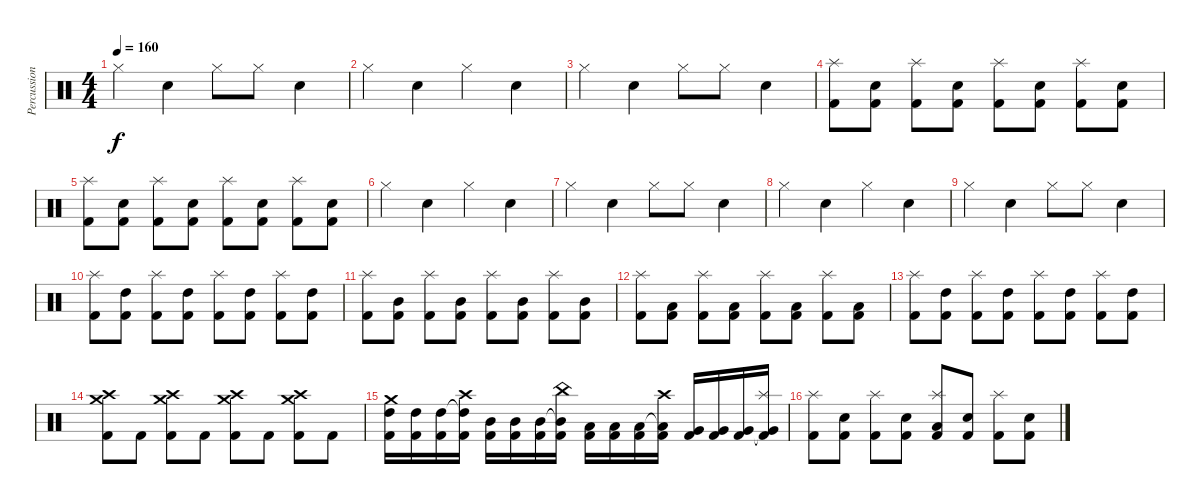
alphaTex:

\track ("Percussion" "Percussion") {instrument percussion}
\staff {score}
\articulation defaults
\ts (4 4)
\tempo 160
\clef neutral
\ks c "Hi-Hat (closed)".4{dy f} "Snare (hit) 2".4 "Hi-Hat (closed)".8 "Hi-Hat (closed)".8 "Snare (hit) 2".4
|
"Hi-Hat (closed)".4 "Snare (hit) 2".4 "Hi-Hat (closed)".4 "Snare (hit) 2".4 |
"Hi-Hat (closed)".4 "Snare (hit) 2".4 "Hi-Hat (closed)".8 "Hi-Hat (closed)".8 "Snare (hit) 2".4 |
("Kick (hit) 2" "Splash (hit)").8 ("Kick (hit) 2" "Snare (hit) 2").8 ("Kick (hit) 2" "Splash (hit)").8 ("Kick (hit) 2" "Snare (hit) 2").8 ("Kick (hit) 2" "Splash (hit)").8 ("Kick (hit) 2" "Snare (hit) 2").8 ("Kick (hit) 2" "Splash (hit)").8 ("Kick (hit) 2" "Snare (hit) 2").8 |
("Kick (hit) 2" "Splash (hit)").8 ("Kick (hit) 2" "Snare (hit) 2").8 ("Kick (hit) 2" "Splash (hit)").8 ("Kick (hit) 2" "Snare (hit) 2").8 ("Kick (hit) 2" "Splash (hit)").8 ("Kick (hit) 2" "Snare (hit) 2").8 ("Kick (hit) 2" "Splash (hit)").8 ("Kick (hit) 2" "Snare (hit) 2").8 |
"Hi-Hat (closed)".4 "Snare (hit) 2".4 "Hi-Hat (closed)".4 "Snare (hit) 2".4 |
"Hi-Hat (closed)".4 "Snare (hit) 2".4 "Hi-Hat (closed)".8 "Hi-Hat (closed)".8 "Snare (hit) 2".4 |
"Hi-Hat (closed)".4 "Snare (hit) 2".4 "Hi-Hat (closed)".4 "Snare (hit) 2".4 |
"Hi-Hat (closed)".4 "Snare (hit) 2".4 "Hi-Hat (closed)".8 "Hi-Hat (closed)".8 "Snare (hit) 2".4 |
("Kick (hit) 2" "Splash (hit)").8 ("Kick (hit) 2" "High Tom (hit)").8 ("Kick (hit) 2" "Splash (hit)").8 ("Kick (hit) 2" "High Tom (hit)").8 ("Kick (hit) 2" "Splash (hit)").8 ("Kick (hit) 2" "High Tom (hit)").8 ("Kick (hit) 2" "Splash (hit)").8 ("Kick (hit) 2" "High Tom (hit)").8 |
("Kick (hit) 2" "Splash (hit)").8 ("Kick (hit) 2" "Mid Tom (hit)").8 ("Kick (hit) 2" "Splash (hit)").8 ("Kick (hit) 2" "Mid Tom (hit)").8 ("Kick (hit) 2" "Splash (hit)").8 ("Kick (hit) 2" "Mid Tom (hit)").8 ("Kick (hit) 2" "Splash (hit)").8 ("Kick (hit) 2" "Mid Tom (hit)").8 |
("Kick (hit) 2" "Splash (hit)").8 ("Kick (hit) 2" "Low Tom (hit)").8 ("Kick (hit) 2" "Splash (hit)").8 ("Kick (hit) 2" "Low Tom (hit)").8 ("Kick (hit) 2" "Splash (hit)").8 ("Kick (hit) 2" "Low Tom (hit)").8 ("Kick (hit) 2" "Splash (hit)").8 ("Kick (hit) 2" "Low Tom (hit)").8 |
("Kick (hit) 2" "Splash (hit)").8 ("Kick (hit) 2" "High Tom (hit)").8 ("Kick (hit) 2" "Splash (hit)").8 ("Kick (hit) 2" "High Tom (hit)").8 ("Kick (hit) 2" "Splash (hit)").8 ("Kick (hit) 2" "High Tom (hit)").8 ("Kick (hit) 2" "Splash (hit)").8 ("Kick (hit) 2" "High Tom (hit)").8 |
("Kick (hit) 2" "Crash medium (hit)" "Crash high (hit)").8 "Kick (hit) 2".8 ("Kick (hit) 2" "Crash medium (hit)" "Crash high (hit)").8 "Kick (hit) 2".8 ("Kick (hit) 2" "Crash medium (hit)" "Crash high (hit)").8 "Kick (hit) 2".8 ("Kick (hit) 2" "Crash medium (hit)" "Crash high (hit)").8 "Kick (hit) 2".8 |
("Kick (hit) 2" "High Tom (hit)" "Crash medium (hit)").16 ("Kick (hit) 2" "High Tom (hit)").16 ("Kick (hit) 2" "High Tom (hit)").16 ("Kick (hit) 2" "High Tom (hit)"{t} "Crash high (hit)").16 ("Kick (hit) 2" "Mid Tom (hit)").16 ("Kick (hit) 2" "Mid Tom (hit)").16 ("Kick (hit) 2" "Mid Tom (hit)").16 ("Kick (hit) 2" "Mid Tom (hit)"{t} "China (hit)").16 ("Kick (hit) 2" "Low Tom (hit)").16 ("Kick (hit) 2" "Low Tom (hit)").16 ("Kick (hit) 2" "Low Tom (hit)").16 ("Kick (hit) 2" "Low Tom (hit)"{t} "Crash high (hit)").16 ("Kick (hit) 2" "Very Low Tom (hit)").16 ("Kick (hit) 2" "Very Low Tom (hit)").16 ("Kick (hit) 2" "Very Low Tom (hit)").16 ("Kick (hit) 2" "Very Low Tom (hit)"{t} "Splash (hit)").16 |
("Kick (hit) 2" "Splash (hit)").8 ("Kick (hit) 2" "Snare (hit) 2").8 ("Kick (hit) 2" "Splash (hit)").8 ("Kick (hit) 2" "Snare (hit) 2").8 ("Kick (hit) 2" "Low Tom (hit)" "Splash (hit)").8 ("Kick (hit) 2" "Snare (hit) 2").8 ("Kick (hit) 2" "Splash (hit)").8 ("Kick (hit) 2" "Snare (hit) 2").8
